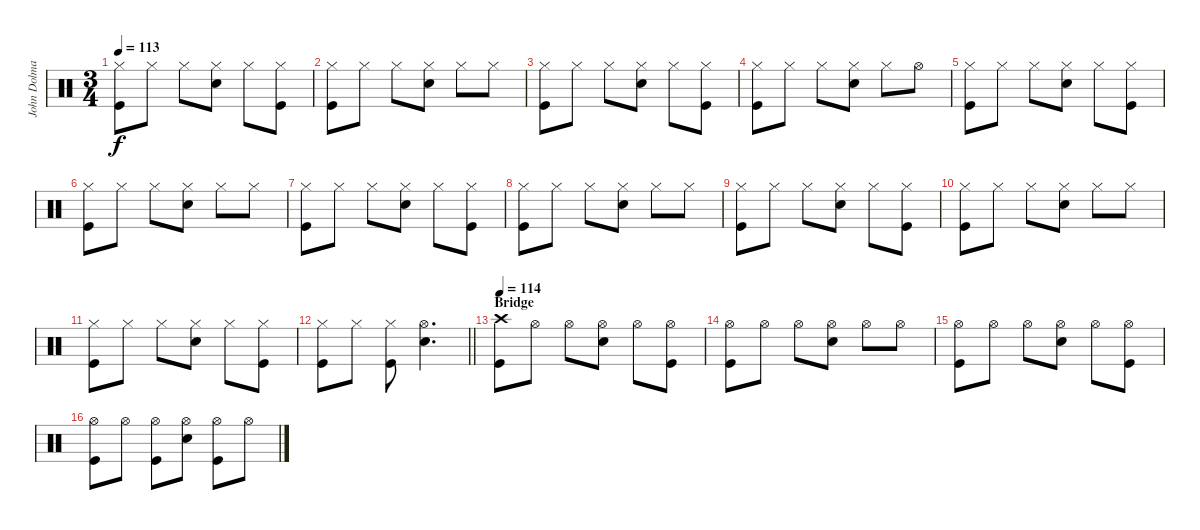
\track ("John Dolmayan - Drums" "John Dolma") {instrument percussion}
\staff
\articulation defaults
\ts (3 4)
\tempo 113
\clef neutral
\ks c
("Hi-Hat (closed)" "Kick (hit)").8{dy f} "Hi-Hat (closed)".8 "Hi-Hat (closed)".8 ("Hi-Hat (closed)" "Snare (hit) 2").8 "Hi-Hat (closed)".8 ("Hi-Hat (closed)" "Kick (hit)").8 |
("Hi-Hat (closed)" "Kick (hit)").8 "Hi-Hat (closed)".8 "Hi-Hat (closed)".8 ("Hi-Hat (closed)" "Snare (hit) 2").8 "Hi-Hat (closed)".8 "Hi-Hat (closed)".8 |
("Hi-Hat (closed)" "Kick (hit)").8 "Hi-Hat (closed)".8 "Hi-Hat (closed)".8 ("Hi-Hat (closed)" "Snare (hit) 2").8 "Hi-Hat (closed)".8 ("Hi-Hat (closed)" "Kick (hit)").8 |
("Hi-Hat (closed)" "Kick (hit)").8 "Hi-Hat (closed)".8 "Hi-Hat (closed)".8 ("Hi-Hat (closed)" "Snare (hit) 2").8 "Hi-Hat (closed)".8 "Hi-Hat (open)".8 |
("Hi-Hat (closed)" "Kick (hit)").8 "Hi-Hat (closed)".8 "Hi-Hat (closed)".8 ("Hi-Hat (closed)" "Snare (hit) 2").8 "Hi-Hat (closed)".8 ("Hi-Hat (closed)" "Kick (hit)").8 |
("Hi-Hat (closed)" "Kick (hit)").8 "Hi-Hat (closed)".8 "Hi-Hat (closed)".8 ("Hi-Hat (closed)" "Snare (hit) 2").8 "Hi-Hat (closed)".8 "Hi-Hat (closed)".8 |
("Hi-Hat (closed)" "Kick (hit)").8 "Hi-Hat (closed)".8 "Hi-Hat (closed)".8 ("Hi-Hat (closed)" "Snare (hit) 2").8 "Hi-Hat (closed)".8 ("Hi-Hat (closed)" "Kick (hit)").8 |
("Hi-Hat (closed)" "Kick (hit)").8 "Hi-Hat (closed)".8 "Hi-Hat (closed)".8 ("Hi-Hat (closed)" "Snare (hit) 2").8 "Hi-Hat (closed)".8 "Hi-Hat (closed)".8 |
("Hi-Hat (closed)" "Kick (hit)").8 "Hi-Hat (closed)".8 "Hi-Hat (closed)".8 ("Hi-Hat (closed)" "Snare (hit) 2").8 "Hi-Hat (closed)".8 ("Hi-Hat (closed)" "Kick (hit)").8 |
("Hi-Hat (closed)" "Kick (hit)").8 "Hi-Hat (closed)".8 "Hi-Hat (closed)".8 ("Hi-Hat (closed)" "Snare (hit) 2").8 "Hi-Hat (closed)".8 "Hi-Hat (closed)".8 |
("Hi-Hat (closed)" "Kick (hit)").8 "Hi-Hat (closed)".8 "Hi-Hat (closed)".8 ("Hi-Hat (closed)" "Snare (hit) 2").8 "Hi-Hat (closed)".8 ("Hi-Hat (closed)" "Kick (hit)").8 |
\barLineRight lightlight
("Hi-Hat (closed)" "Kick (hit)").8 "Hi-Hat (closed)".8 ("Hi-Hat (closed)" "Kick (hit)").8 ("Hi-Hat (open)" "Snare (hit) 2").4{d} |
\section ("" "Bridge")
\tempo 114
("Crash high (hit)" "Kick (hit)").8 "Hi-Hat (open)".8 "Hi-Hat (open)".8 ("Hi-Hat (open)" "Snare (hit) 2").8 "Hi-Hat (open)".8 ("Hi-Hat (open)" "Kick (hit)").8 |
("Hi-Hat (open)" "Kick (hit)").8 "Hi-Hat (open)".8 "Hi-Hat (open)".8 ("Hi-Hat (open)" "Snare (hit) 2").8 "Hi-Hat (open)".8 "Hi-Hat (open)".8 |
("Hi-Hat (open)" "Kick (hit)").8 "Hi-Hat (open)".8 "Hi-Hat (open)".8 ("Hi-Hat (open)" "Snare (hit) 2").8 "Hi-Hat (open)".8 ("Hi-Hat (open)" "Kick (hit)").8 |
("Hi-Hat (open)" "Kick (hit)").8 "Hi-Hat (open)".8 ("Hi-Hat (open)" "Kick (hit)").8 ("Hi-Hat (open)" "Snare (hit) 2").8 ("Hi-Hat (open)" "Kick (hit)").8 "Hi-Hat (open)".8
